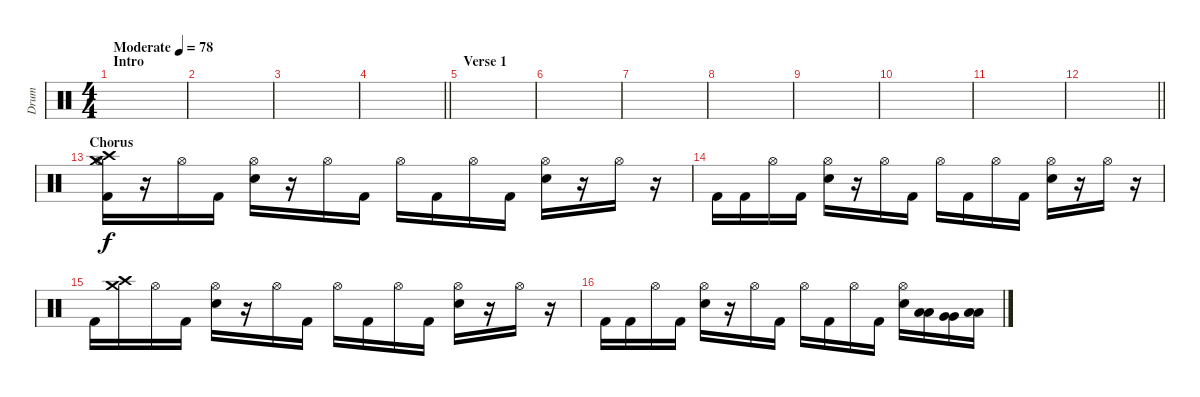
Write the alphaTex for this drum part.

\track ("Drum" "Drum") {instrument percussion}
\staff {score}
\articulation defaults
\ts (4 4)
\section ("" "Intro")
\tempo (78 "Moderate")
\clef neutral
\ks c
|
|
|
\barLineRight lightlight
|
\section ("" "Verse 1")
|
|
|
|
|
|
|
\barLineRight lightlight
|
\section ("" "Chorus")
("Crash medium (hit)" "Crash high (hit)" "Kick (hit) 2" "Hi-Hat (open)").16 r.16 "Hi-Hat (open)".16 "Kick (hit) 2".16 ("Electric Snare (hit)" "Hi-Hat (open)").16 r.16 "Hi-Hat (open)".16 "Kick (hit) 2".16 "Hi-Hat (open)".16 "Kick (hit) 2".16 "Hi-Hat (open)".16 "Kick (hit) 2".16 ("Electric Snare (hit)" "Hi-Hat (open)").16 r.16 "Hi-Hat (open)".16 r.16 |
"Kick (hit) 2".16 "Kick (hit) 2".16 "Hi-Hat (open)".16 "Kick (hit) 2".16 ("Electric Snare (hit)" "Hi-Hat (open)").16 r.16 "Hi-Hat (open)".16 "Kick (hit) 2".16 "Hi-Hat (open)".16 "Kick (hit) 2".16 "Hi-Hat (open)".16 "Kick (hit) 2".16 ("Electric Snare (hit)" "Hi-Hat (open)").16 r.16 "Hi-Hat (open)".16 r.16 |
"Kick (hit) 2".16 ("Crash high (hit)" "Crash medium (hit)").16 "Hi-Hat (open)".16 "Kick (hit) 2".16 ("Electric Snare (hit)" "Hi-Hat (open)").16 r.16 "Hi-Hat (open)".16 "Kick (hit) 2".16 "Hi-Hat (open)".16 "Kick (hit) 2".16 "Hi-Hat (open)".16 "Kick (hit) 2".16 ("Electric Snare (hit)" "Hi-Hat (open)").16 r.16 "Hi-Hat (open)".16 r.16 |
"Kick (hit) 2".16 "Kick (hit) 2".16 "Hi-Hat (open)".16 "Kick (hit) 2".16 ("Electric Snare (hit)" "Hi-Hat (open)").16 r.16 "Hi-Hat (open)".16 "Kick (hit) 2".16 "Hi-Hat (open)".16 "Kick (hit) 2".16 "Hi-Hat (open)".16 "Kick (hit) 2".16 ("Electric Snare (hit)" "Hi-Hat (open)").16 ("Low Tom (hit)" "Low Tom (hit)").16 ("Very Low Tom (hit)" "Very Low Tom (hit)").16 ("Low Floor Tom (hit)" "Low Floor Tom (hit)").16
